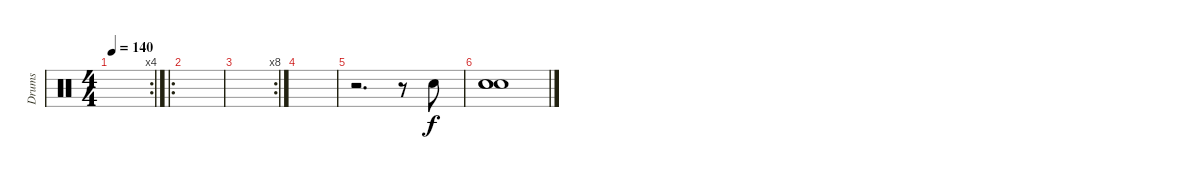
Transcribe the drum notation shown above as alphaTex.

\track ("Drums" "Drums") {instrument percussion}
\staff {score}
\articulation defaults
\rc 4
\ts (4 4)
\tempo 140
\clef neutral
\ks c
|
\ro
|
\rc 8
|
|
r.2{d} r.8 "Snare (hit) 2".8 |
("Snare (hit) 2" "Snare (hit) 2" "Snare (hit) 2").1
